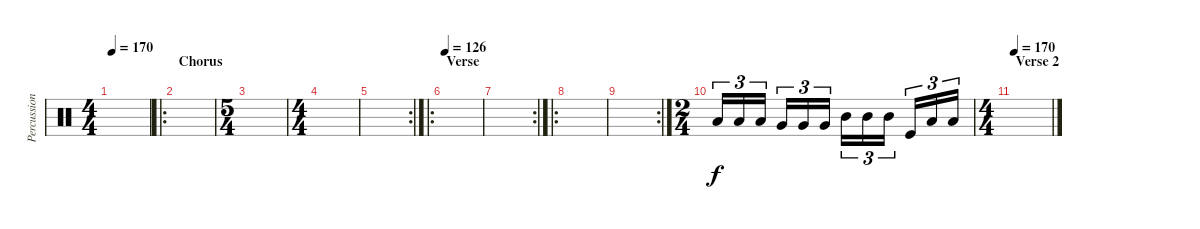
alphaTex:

\track ("Percussion" "Percussion") {instrument percussion}
\staff {score}
\articulation defaults
\ts (4 4)
\tempo 170
\clef neutral
\ks c
|
\ro
\section ("" "Chorus")
|
\ts (5 4)
|
\ts (4 4)
|
\rc 2
|
\ro
\section ("" "Verse ")
\tempo 126
|
\rc 2
|
\ro
|
\rc 2
|
\ts (2 4)
"Low Tom (hit)".16{tu (3 2)} "Low Tom (hit)".16{tu (3 2)} "Low Tom (hit)".16{tu (3 2) beam splitsecondary} "Very Low Tom (hit)".16{tu (3 2)} "Very Low Tom (hit)".16{tu (3 2)} "Very Low Tom (hit)".16{tu (3 2)} "Mid Tom (hit)".16{tu (3 2)} "Mid Tom (hit)".16{tu (3 2)} "Mid Tom (hit)".16{tu (3 2) beam splitsecondary} "Kick (hit)".16{tu (3 2)} "Low Tom (hit)".16{tu (3 2)} "Low Tom (hit)".16{tu (3 2)} |
\ts (4 4)
\section ("" "Verse 2")
\tempo 170
